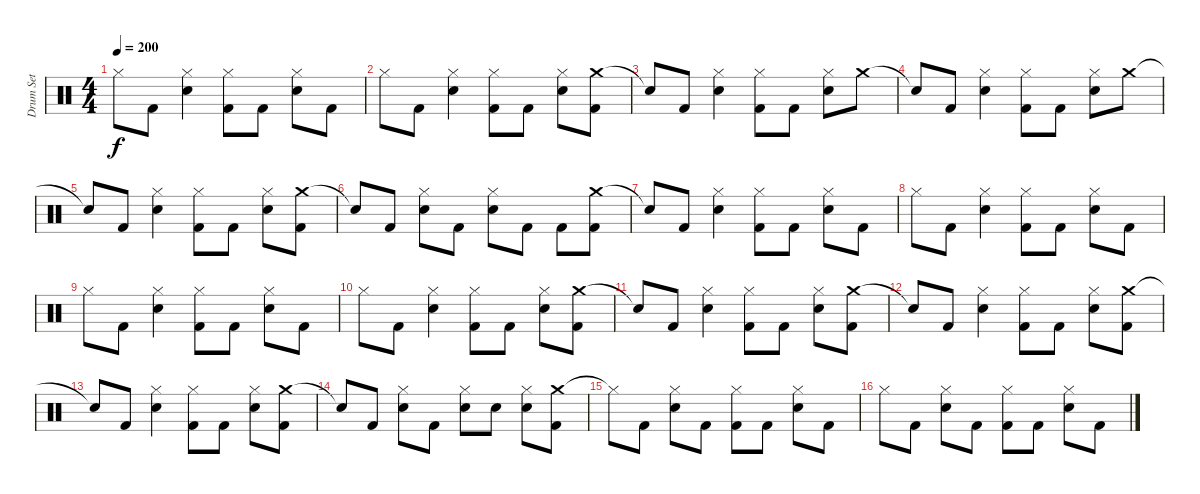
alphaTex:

\track ("Drum Set" "Drum Set") {instrument percussion}
\staff {score}
\articulation defaults
\ts (4 4)
\tempo 200
\clef neutral
\ks c "Hi-Hat (closed)".8{dy f} "Kick (hit) 2".8
("Hi-Hat (closed)" "Snare (hit) 2").4 ("Hi-Hat (closed)" "Kick (hit) 2").8 "Kick (hit) 2".8 ("Hi-Hat (closed)" "Snare (hit) 2").8 "Kick (hit) 2".8 |
"Hi-Hat (closed)".8 "Kick (hit) 2".8 ("Hi-Hat (closed)" "Snare (hit) 2").4 ("Hi-Hat (closed)" "Kick (hit) 2").8 "Kick (hit) 2".8 ("Hi-Hat (closed)" "Snare (hit) 2").8 ("Crash medium (hit)" "Kick (hit) 2").8 |
"Snare (hit)"{t}.8 "Kick (hit) 2".8 ("Hi-Hat (closed)" "Snare (hit) 2").4 ("Hi-Hat (closed)" "Kick (hit) 2").8 "Kick (hit) 2".8 ("Hi-Hat (closed)" "Snare (hit) 2").8 "Crash medium (hit)".8 |
"Snare (hit)"{t}.8 "Kick (hit) 2".8 ("Hi-Hat (closed)" "Snare (hit) 2").4 ("Hi-Hat (closed)" "Kick (hit) 2").8 "Kick (hit) 2".8 ("Hi-Hat (closed)" "Snare (hit) 2").8 "Crash medium (hit)".8 |
"Snare (hit)"{t}.8 "Kick (hit) 2".8 ("Hi-Hat (closed)" "Snare (hit) 2").4 ("Hi-Hat (closed)" "Kick (hit) 2").8 "Kick (hit) 2".8 ("Hi-Hat (closed)" "Snare (hit) 2").8 ("Crash medium (hit)" "Kick (hit) 2").8 |
"Snare (hit)"{t}.8 "Kick (hit) 2".8 ("Hi-Hat (closed)" "Snare (hit) 2").8 "Kick (hit) 2".8 ("Hi-Hat (closed)" "Snare (hit) 2").8 "Kick (hit) 2".8 "Kick (hit) 2".8 ("Crash medium (hit)" "Kick (hit) 2").8 |
"Snare (hit)"{t}.8 "Kick (hit) 2".8 ("Hi-Hat (closed)" "Snare (hit) 2").4 ("Hi-Hat (closed)" "Kick (hit) 2").8 "Kick (hit) 2".8 ("Hi-Hat (closed)" "Snare (hit) 2").8 "Kick (hit) 2".8 |
"Hi-Hat (closed)".8 "Kick (hit) 2".8 ("Hi-Hat (closed)" "Snare (hit) 2").4 ("Hi-Hat (closed)" "Kick (hit) 2").8 "Kick (hit) 2".8 ("Hi-Hat (closed)" "Snare (hit) 2").8 "Kick (hit) 2".8 |
"Hi-Hat (closed)".8 "Kick (hit) 2".8 ("Hi-Hat (closed)" "Snare (hit) 2").4 ("Hi-Hat (closed)" "Kick (hit) 2").8 "Kick (hit) 2".8 ("Hi-Hat (closed)" "Snare (hit) 2").8 "Kick (hit) 2".8 |
"Hi-Hat (closed)".8 "Kick (hit) 2".8 ("Hi-Hat (closed)" "Snare (hit) 2").4 ("Hi-Hat (closed)" "Kick (hit) 2").8 "Kick (hit) 2".8 ("Hi-Hat (closed)" "Snare (hit) 2").8 ("Crash medium (hit)" "Kick (hit) 2").8 |
"Snare (hit)"{t}.8 "Kick (hit) 2".8 ("Hi-Hat (closed)" "Snare (hit) 2").4 ("Hi-Hat (closed)" "Kick (hit) 2").8 "Kick (hit) 2".8 ("Hi-Hat (closed)" "Snare (hit) 2").8 ("Crash medium (hit)" "Kick (hit) 2").8 |
"Snare (hit)"{t}.8 "Kick (hit) 2".8 ("Hi-Hat (closed)" "Snare (hit) 2").4 ("Hi-Hat (closed)" "Kick (hit) 2").8 "Kick (hit) 2".8 ("Hi-Hat (closed)" "Snare (hit) 2").8 ("Crash medium (hit)" "Kick (hit) 2").8 |
"Snare (hit)"{t}.8 "Kick (hit) 2".8 ("Hi-Hat (closed)" "Snare (hit) 2").4 ("Hi-Hat (closed)" "Kick (hit) 2").8 "Kick (hit) 2".8 ("Hi-Hat (closed)" "Snare (hit) 2").8 ("Crash medium (hit)" "Kick (hit) 2").8 |
"Snare (hit)"{t}.8 "Kick (hit) 2".8 ("Hi-Hat (closed)" "Snare (hit) 2").8 "Kick (hit) 2".8 ("Hi-Hat (closed)" "Snare (hit) 2").8 "Snare (hit) 2".8 ("Hi-Hat (closed)" "Snare (hit) 2").8 ("Crash medium (hit)" "Kick (hit) 2").8 |
"Hi-Hat (closed)"{t}.8 "Kick (hit) 2".8 ("Hi-Hat (closed)" "Snare (hit) 2").8 "Kick (hit) 2".8 ("Hi-Hat (closed)" "Kick (hit) 2").8 "Kick (hit) 2".8 ("Hi-Hat (closed)" "Snare (hit) 2").8 "Kick (hit) 2".8 |
"Hi-Hat (closed)".8 "Kick (hit) 2".8 ("Hi-Hat (closed)" "Snare (hit) 2").8 "Kick (hit) 2".8 ("Hi-Hat (closed)" "Kick (hit) 2").8 "Kick (hit) 2".8 ("Hi-Hat (closed)" "Snare (hit) 2").8 "Kick (hit) 2".8
